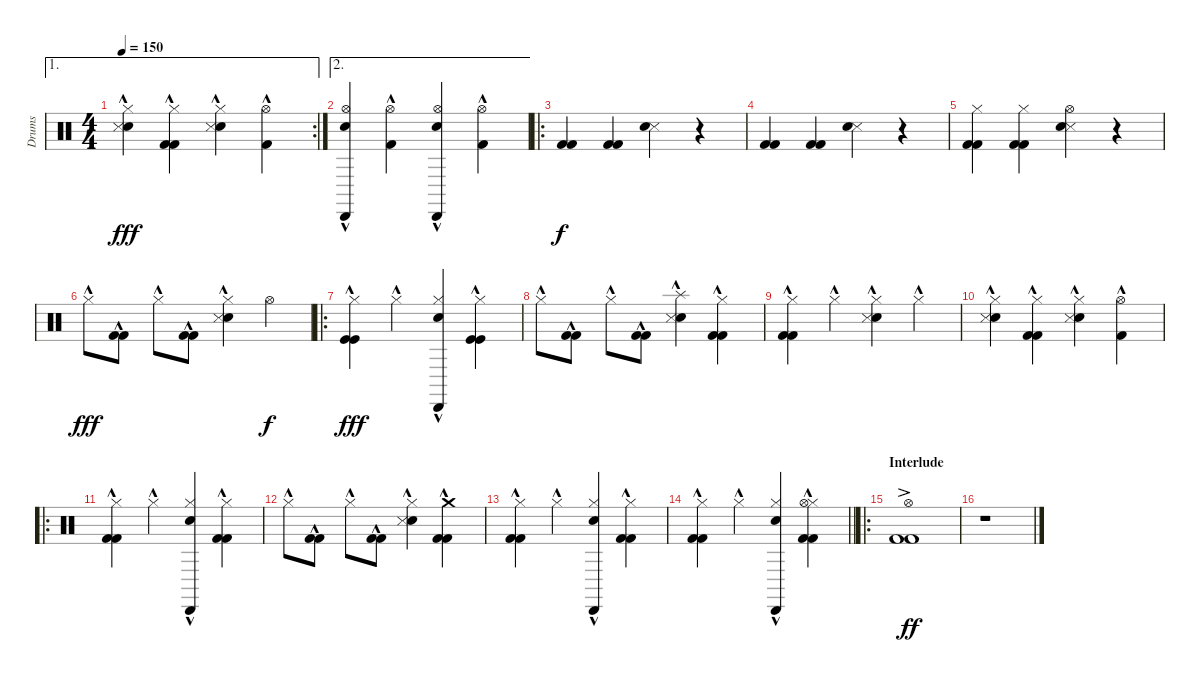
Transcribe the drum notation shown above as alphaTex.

\track ("Drums" "Drums") {instrument percussion}
\staff {score}
\articulation defaults
\ae 1
\rc 2
\ts (4 4)
\tempo 150
\clef neutral
\ks c
("Hi-Hat (closed)"{hac} "Electric Snare (hit)"{hac} "Snare (side stick) 3"{hac}).4{dy fff} ("Hi-Hat (closed)"{hac} "Kick (hit) 2"{hac} "Kick (hit) 2"{hac}).4 ("Hi-Hat (closed)"{hac} "Electric Snare (hit)"{hac} "Snare (side stick) 3"{hac}).4 ("Hi-Hat (open)"{hac} "Kick (hit) 2"{hac}).4 |
\ae 2
("Cabasa (hit)"{hac} "Electric Snare (hit)"{hac} "Hi-Hat (open)"{hac}).4 ("Hi-Hat (open)"{hac} "Kick (hit) 2"{hac}).4 ("Cabasa (hit)"{hac} "Electric Snare (hit)"{hac} "Hi-Hat (open)"{hac}).4 ("Hi-Hat (open)"{hac} "Kick (hit) 2"{hac}).4 |
\ro
("Kick (hit) 2" "Kick (hit) 2").4{dy f} ("Kick (hit) 2" "Kick (hit) 2").4 ("Snare (side stick) 3" "Electric Snare (hit)").4 r.4 |
("Kick (hit) 2" "Kick (hit) 2").4 ("Kick (hit) 2" "Kick (hit) 2").4 ("Snare (side stick) 3" "Electric Snare (hit)").4 r.4 |
("Kick (hit) 2" "Hi-Hat (closed)" "Kick (hit) 2").4 ("Kick (hit) 2" "Hi-Hat (closed)" "Kick (hit) 2").4 ("Snare (side stick) 3" "Electric Snare (hit)" "Hi-Hat (open)").4 r.4 |
"Hi-Hat (closed)"{hac}.8{dy fff} ("Kick (hit) 2"{hac} "Kick (hit) 2"{hac}).8 "Hi-Hat (closed)"{hac}.8 ("Kick (hit) 2"{hac} "Kick (hit) 2"{hac}).8 ("Hi-Hat (closed)" "Electric Snare (hit)"{hac} "Snare (side stick) 3"{hac}).4 "Hi-Hat (open)".4{dy f} |
\ro
("Hi-Hat (closed)"{hac} "Kick (hit)"{hac} "Kick (hit)"{hac}).4{dy fff} "Hi-Hat (closed)"{hac}.4 ("Hi-Hat (closed)"{hac} "Cabasa (hit)"{hac} "Electric Snare (hit)"{hac}).4 ("Hi-Hat (closed)"{hac} "Kick (hit)"{hac} "Kick (hit)"{hac}).4 |
"Hi-Hat (closed)"{hac}.8 ("Kick (hit) 2"{hac} "Kick (hit) 2"{hac}).8 "Hi-Hat (closed)"{hac}.8 ("Kick (hit) 2"{hac} "Kick (hit) 2"{hac}).8 ("Splash (hit)"{hac} "Electric Snare (hit)"{hac} "Snare (side stick) 3"{hac}).4 ("Hi-Hat (closed)" "Kick (hit) 2"{hac} "Kick (hit) 2"{hac}).4 |
("Hi-Hat (closed)"{hac} "Kick (hit) 2"{hac} "Kick (hit) 2"{hac}).4 "Hi-Hat (closed)"{hac}.4 ("Hi-Hat (closed)"{hac} "Electric Snare (hit)"{hac} "Snare (side stick) 3"{hac}).4 "Hi-Hat (closed)"{hac}.4 |
("Hi-Hat (closed)"{hac} "Electric Snare (hit)"{hac} "Snare (side stick) 3"{hac}).4 ("Hi-Hat (closed)"{hac} "Kick (hit) 2"{hac} "Kick (hit) 2"{hac}).4 ("Hi-Hat (closed)"{hac} "Electric Snare (hit)"{hac} "Snare (side stick) 3"{hac}).4 ("Hi-Hat (open)"{hac} "Kick (hit) 2"{hac}).4 |
\ro
("Hi-Hat (closed)"{hac} "Kick (hit) 2"{hac} "Kick (hit) 2"{hac}).4 "Hi-Hat (closed)"{hac}.4 ("Hi-Hat (closed)"{hac} "Cabasa (hit)"{hac} "Electric Snare (hit)"{hac}).4 ("Hi-Hat (closed)"{hac} "Kick (hit) 2"{hac} "Kick (hit) 2"{hac}).4 |
"Hi-Hat (closed)"{hac}.8 ("Kick (hit) 2"{hac} "Kick (hit) 2"{hac}).8 "Hi-Hat (closed)"{hac}.8 ("Kick (hit) 2"{hac} "Kick (hit) 2"{hac}).8 ("Hi-Hat (closed)" "Electric Snare (hit)"{hac} "Snare (side stick) 3"{hac}).4 ("Crash medium (hit)"{hac} "Kick (hit) 2"{hac} "Kick (hit) 2"{hac}).4 |
("Hi-Hat (closed)"{hac} "Kick (hit) 2"{hac} "Kick (hit) 2"{hac}).4 "Hi-Hat (closed)"{hac}.4 ("Hi-Hat (closed)"{hac} "Cabasa (hit)"{hac} "Electric Snare (hit)"{hac}).4 ("Hi-Hat (closed)"{hac} "Kick (hit) 2"{hac} "Kick (hit) 2"{hac}).4 |
\barLineRight lightlight
("Hi-Hat (closed)"{hac} "Kick (hit) 2"{hac} "Kick (hit) 2"{hac}).4 "Hi-Hat (closed)"{hac}.4 ("Hi-Hat (closed)"{hac} "Cabasa (hit)"{hac} "Electric Snare (hit)"{hac}).4 ("Hi-Hat (closed)"{hac} "Kick (hit) 2"{hac} "Kick (hit) 2"{hac} "Hi-Hat (open)"{hac}).4 |
\ro
\section ("" "Interlude")
("Hi-Hat (open)"{ac} "Kick (hit) 2"{ac} "Kick (hit) 2"{ac}).1{dy ff} |
r.1
